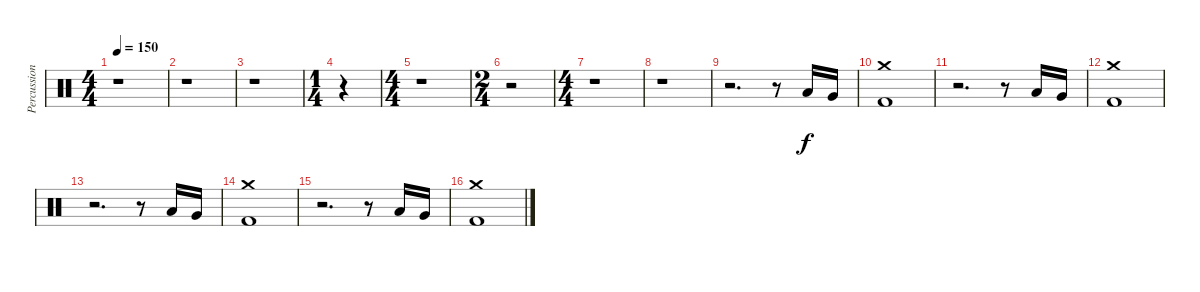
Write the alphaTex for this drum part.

\track ("Percussioni" "Percussion") {instrument percussion}
\staff {score}
\articulation defaults
\ts (4 4)
\tempo 150
\clef neutral
\ks c
r.1{dy f} |
r.1 |
r.1 |
\ts (1 4)
r.4 |
\ts (4 4)
r.1 |
\ts (2 4)
r.2 |
\ts (4 4)
r.1 |
r.1 |
r.2{d} r.8 "Low Tom (hit)".16{volume 16} "Very Low Tom (hit)".16 |
("Crash medium (hit)" "Kick (hit) 2").1 |
r.2{d} r.8 "Low Tom (hit)".16 "Very Low Tom (hit)".16 |
("Crash medium (hit)" "Kick (hit) 2").1 |
r.2{d} r.8 "Low Tom (hit)".16 "Very Low Tom (hit)".16 |
("Crash medium (hit)" "Kick (hit) 2").1 |
r.2{d} r.8 "Low Tom (hit)".16 "Very Low Tom (hit)".16 |
("Crash medium (hit)" "Kick (hit) 2").1
